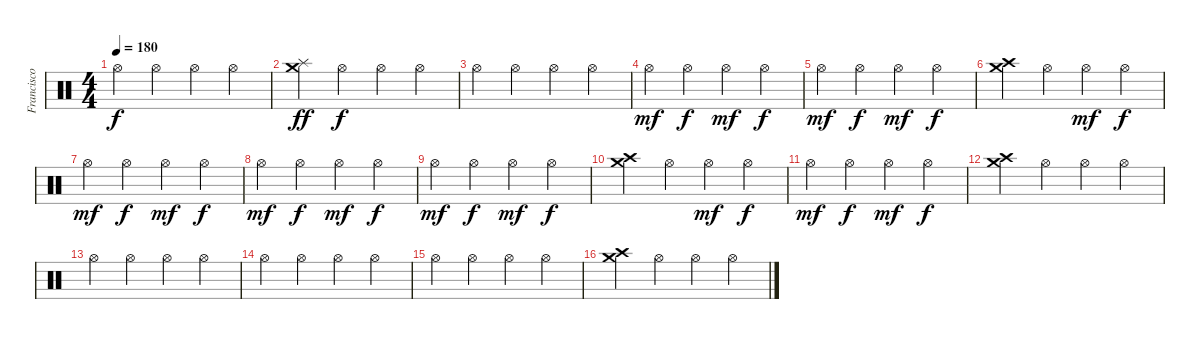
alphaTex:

\track ("Francisco Izquierdo (Percusión)" "Francisco ") {instrument percussion}
\staff {score}
\articulation defaults
\ts (4 4)
\tempo 180
\clef neutral
\ks c "Hi-Hat (open)".4{dy f} "Hi-Hat (open)".4 "Hi-Hat (open)".4 "Hi-Hat (open)".4
|
("Splash (hit)" "Crash medium (hit)").4{dy ff} "Hi-Hat (open)".4{dy f} "Hi-Hat (open)".4 "Hi-Hat (open)".4 |
"Hi-Hat (open)".4 "Hi-Hat (open)".4 "Hi-Hat (open)".4 "Hi-Hat (open)".4 |
"Hi-Hat (open)".4{dy mf} "Hi-Hat (open)".4{dy f} "Hi-Hat (open)".4{dy mf} "Hi-Hat (open)".4{dy f} |
"Hi-Hat (open)".4{dy mf} "Hi-Hat (open)".4{dy f} "Hi-Hat (open)".4{dy mf} "Hi-Hat (open)".4{dy f} |
("Crash high (hit)" "Crash medium (hit)").4 "Hi-Hat (open)".4 "Hi-Hat (open)".4{dy mf} "Hi-Hat (open)".4{dy f} |
"Hi-Hat (open)".4{dy mf} "Hi-Hat (open)".4{dy f} "Hi-Hat (open)".4{dy mf} "Hi-Hat (open)".4{dy f} |
"Hi-Hat (open)".4{dy mf} "Hi-Hat (open)".4{dy f} "Hi-Hat (open)".4{dy mf} "Hi-Hat (open)".4{dy f} |
"Hi-Hat (open)".4{dy mf} "Hi-Hat (open)".4{dy f} "Hi-Hat (open)".4{dy mf} "Hi-Hat (open)".4{dy f} |
("Crash high (hit)" "Crash medium (hit)").4 "Hi-Hat (open)".4 "Hi-Hat (open)".4{dy mf} "Hi-Hat (open)".4{dy f} |
"Hi-Hat (open)".4{dy mf} "Hi-Hat (open)".4{dy f} "Hi-Hat (open)".4{dy mf} "Hi-Hat (open)".4{dy f} |
("Crash high (hit)" "Crash medium (hit)").4 "Hi-Hat (open)".4 "Hi-Hat (open)".4 "Hi-Hat (open)".4 |
"Hi-Hat (open)".4 "Hi-Hat (open)".4 "Hi-Hat (open)".4 "Hi-Hat (open)".4 |
"Hi-Hat (open)".4 "Hi-Hat (open)".4 "Hi-Hat (open)".4 "Hi-Hat (open)".4 |
"Hi-Hat (open)".4 "Hi-Hat (open)".4 "Hi-Hat (open)".4 "Hi-Hat (open)".4 |
("Crash high (hit)" "Crash medium (hit)").4 "Hi-Hat (open)".4 "Hi-Hat (open)".4 "Hi-Hat (open)".4
